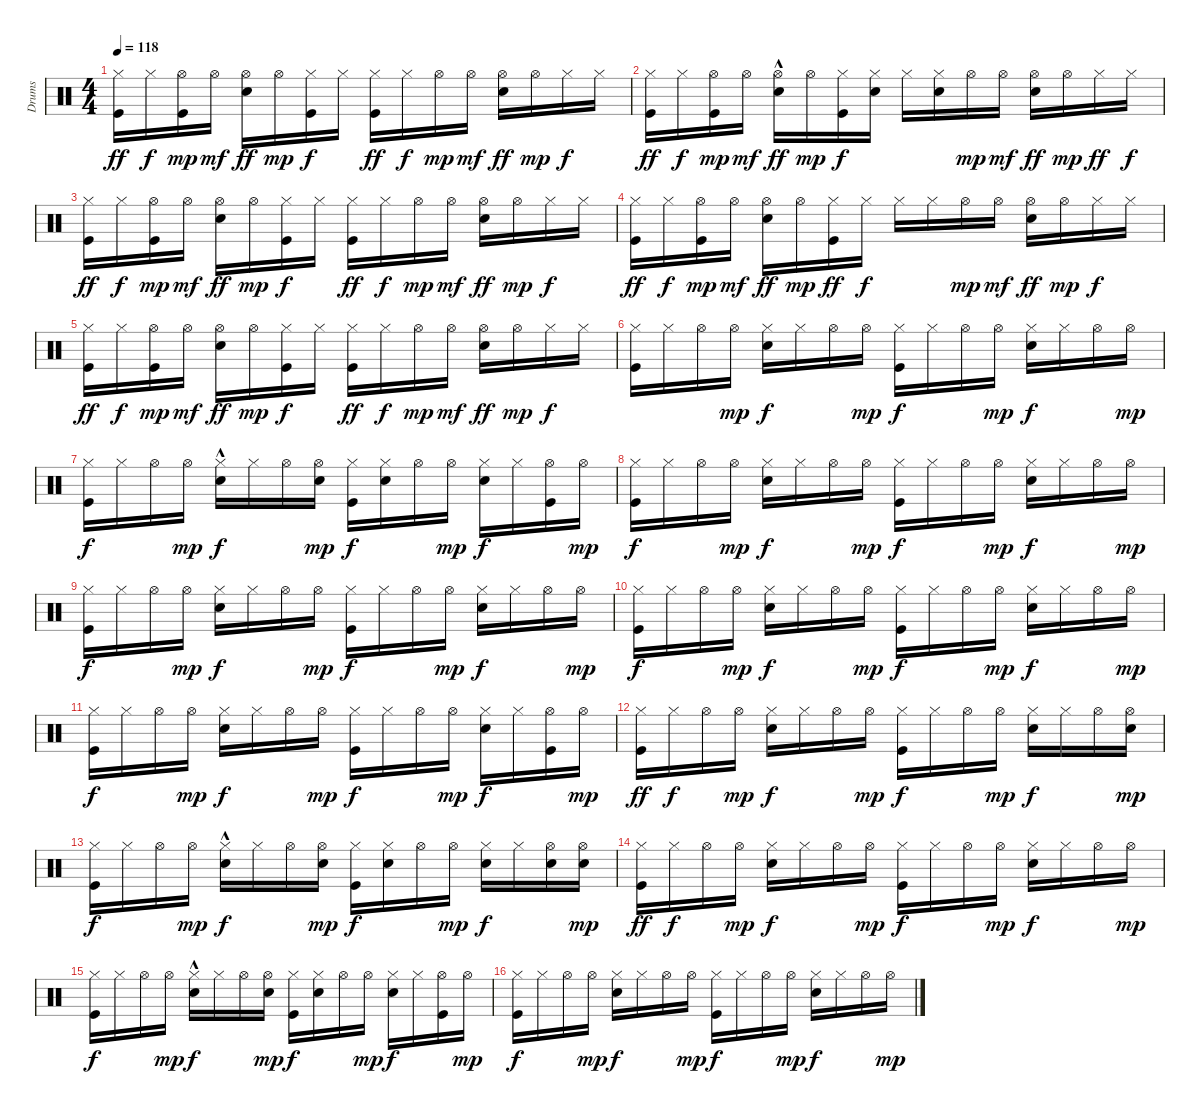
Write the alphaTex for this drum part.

\track ("Drums" "Drums") {instrument percussion}
\staff {score}
\articulation defaults
\ts (4 4)
\tempo 118
\clef neutral
\ks c
("Kick (hit)" "Hi-Hat (closed)").16{dy ff} "Hi-Hat (closed)".16{dy f} ("Kick (hit)" "Hi-Hat (open)").16{dy mp} "Hi-Hat (open)".16{dy mf} ("Electric Snare (hit)" "Hi-Hat (open)").16{dy ff} "Hi-Hat (open)".16{dy mp} ("Kick (hit)" "Hi-Hat (closed)").16{dy f} "Hi-Hat (closed)".16 ("Kick (hit)" "Hi-Hat (closed)").16{dy ff} "Hi-Hat (closed)".16{dy f} "Hi-Hat (open)".16{dy mp} "Hi-Hat (open)".16{dy mf} ("Electric Snare (hit)" "Hi-Hat (open)").16{dy ff} "Hi-Hat (open)".16{dy mp} "Hi-Hat (closed)".16{dy f} "Hi-Hat (closed)".16 |
("Kick (hit)" "Hi-Hat (closed)").16{dy ff} "Hi-Hat (closed)".16{dy f} ("Kick (hit)" "Hi-Hat (open)").16{dy mp} "Hi-Hat (open)".16{dy mf} ("Electric Snare (hit)"{hac} "Hi-Hat (open)").16{dy ff} "Hi-Hat (open)".16{dy mp} ("Kick (hit)" "Hi-Hat (closed)").16{dy f} ("Electric Snare (hit)" "Hi-Hat (closed)").16 "Hi-Hat (closed)".16 ("Electric Snare (hit)" "Hi-Hat (closed)").16 "Hi-Hat (open)".16{dy mp} "Hi-Hat (open)".16{dy mf} ("Hi-Hat (open)" "Electric Snare (hit)").16{dy ff} "Hi-Hat (open)".16{dy mp} "Hi-Hat (closed)".16{dy ff} "Hi-Hat (closed)".16{dy f} |
("Kick (hit)" "Hi-Hat (closed)").16{dy ff} "Hi-Hat (closed)".16{dy f} ("Kick (hit)" "Hi-Hat (open)").16{dy mp} "Hi-Hat (open)".16{dy mf} ("Electric Snare (hit)" "Hi-Hat (open)").16{dy ff} "Hi-Hat (open)".16{dy mp} ("Kick (hit)" "Hi-Hat (closed)").16{dy f} "Hi-Hat (closed)".16 ("Kick (hit)" "Hi-Hat (closed)").16{dy ff} "Hi-Hat (closed)".16{dy f} "Hi-Hat (open)".16{dy mp} "Hi-Hat (open)".16{dy mf} ("Electric Snare (hit)" "Hi-Hat (open)").16{dy ff} "Hi-Hat (open)".16{dy mp} "Hi-Hat (closed)".16{dy f} "Hi-Hat (closed)".16 |
("Kick (hit)" "Hi-Hat (closed)").16{dy ff} "Hi-Hat (closed)".16{dy f} ("Kick (hit)" "Hi-Hat (open)").16{dy mp} "Hi-Hat (open)".16{dy mf} ("Electric Snare (hit)" "Hi-Hat (open)").16{dy ff} "Hi-Hat (open)".16{dy mp} ("Kick (hit)" "Hi-Hat (closed)").16{dy ff} "Hi-Hat (closed)".16{dy f} "Hi-Hat (closed)".16 "Hi-Hat (closed)".16 "Hi-Hat (open)".16{dy mp} "Hi-Hat (open)".16{dy mf} ("Electric Snare (hit)" "Hi-Hat (open)").16{dy ff} "Hi-Hat (open)".16{dy mp} "Hi-Hat (closed)".16{dy f} "Hi-Hat (closed)".16 |
("Kick (hit)" "Hi-Hat (closed)").16{dy ff} "Hi-Hat (closed)".16{dy f} ("Kick (hit)" "Hi-Hat (open)").16{dy mp} "Hi-Hat (open)".16{dy mf} ("Electric Snare (hit)" "Hi-Hat (open)").16{dy ff} "Hi-Hat (open)".16{dy mp} ("Kick (hit)" "Hi-Hat (closed)").16{dy f} "Hi-Hat (closed)".16 ("Kick (hit)" "Hi-Hat (closed)").16{dy ff} "Hi-Hat (closed)".16{dy f} "Hi-Hat (open)".16{dy mp} "Hi-Hat (open)".16{dy mf} ("Electric Snare (hit)" "Hi-Hat (open)").16{dy ff} "Hi-Hat (open)".16{dy mp} "Hi-Hat (closed)".16{dy f} "Hi-Hat (closed)".16 |
("Hi-Hat (closed)" "Kick (hit)").16 "Hi-Hat (closed)".16 "Hi-Hat (open)".16 "Hi-Hat (open)".16{dy mp} ("Hi-Hat (closed)" "Electric Snare (hit)").16{dy f} "Hi-Hat (closed)".16 "Hi-Hat (open)".16 "Hi-Hat (open)".16{dy mp} ("Kick (hit)" "Hi-Hat (closed)").16{dy f} "Hi-Hat (closed)".16 "Hi-Hat (open)".16 "Hi-Hat (open)".16{dy mp} ("Hi-Hat (closed)" "Electric Snare (hit)").16{dy f} "Hi-Hat (closed)".16 "Hi-Hat (open)".16 "Hi-Hat (open)".16{dy mp} |
("Hi-Hat (closed)" "Kick (hit)").16{dy f} "Hi-Hat (closed)".16 "Hi-Hat (open)".16 "Hi-Hat (open)".16{dy mp} ("Hi-Hat (closed)" "Electric Snare (hit)"{hac}).16{dy f} "Hi-Hat (closed)".16 "Hi-Hat (open)".16 ("Electric Snare (hit)" "Hi-Hat (open)").16{dy mp} ("Kick (hit)" "Hi-Hat (closed)").16{dy f} ("Electric Snare (hit)" "Hi-Hat (closed)").16 "Hi-Hat (open)".16 "Hi-Hat (open)".16{dy mp} ("Hi-Hat (closed)" "Electric Snare (hit)").16{dy f} "Hi-Hat (closed)".16 ("Kick (hit)" "Hi-Hat (open)").16 "Hi-Hat (open)".16{dy mp} |
("Hi-Hat (closed)" "Kick (hit)").16{dy f} "Hi-Hat (closed)".16 "Hi-Hat (open)".16 "Hi-Hat (open)".16{dy mp} ("Hi-Hat (closed)" "Electric Snare (hit)").16{dy f} "Hi-Hat (closed)".16 "Hi-Hat (open)".16 "Hi-Hat (open)".16{dy mp} ("Kick (hit)" "Hi-Hat (closed)").16{dy f} "Hi-Hat (closed)".16 "Hi-Hat (open)".16 "Hi-Hat (open)".16{dy mp} ("Hi-Hat (closed)" "Electric Snare (hit)").16{dy f} "Hi-Hat (closed)".16 "Hi-Hat (open)".16 "Hi-Hat (open)".16{dy mp} |
("Hi-Hat (closed)" "Kick (hit)").16{dy f} "Hi-Hat (closed)".16 "Hi-Hat (open)".16 "Hi-Hat (open)".16{dy mp} ("Hi-Hat (closed)" "Electric Snare (hit)").16{dy f} "Hi-Hat (closed)".16 "Hi-Hat (open)".16 "Hi-Hat (open)".16{dy mp} ("Kick (hit)" "Hi-Hat (closed)").16{dy f} "Hi-Hat (closed)".16 "Hi-Hat (open)".16 "Hi-Hat (open)".16{dy mp} ("Hi-Hat (closed)" "Electric Snare (hit)").16{dy f} "Hi-Hat (closed)".16 "Hi-Hat (open)".16 "Hi-Hat (open)".16{dy mp} |
("Hi-Hat (closed)" "Kick (hit)").16{dy f} "Hi-Hat (closed)".16 "Hi-Hat (open)".16 "Hi-Hat (open)".16{dy mp} ("Hi-Hat (closed)" "Electric Snare (hit)").16{dy f} "Hi-Hat (closed)".16 "Hi-Hat (open)".16 "Hi-Hat (open)".16{dy mp} ("Kick (hit)" "Hi-Hat (closed)").16{dy f} "Hi-Hat (closed)".16 "Hi-Hat (open)".16 "Hi-Hat (open)".16{dy mp} ("Hi-Hat (closed)" "Electric Snare (hit)").16{dy f} "Hi-Hat (closed)".16 "Hi-Hat (open)".16 "Hi-Hat (open)".16{dy mp} |
("Hi-Hat (closed)" "Kick (hit)").16{dy f} "Hi-Hat (closed)".16 "Hi-Hat (open)".16 "Hi-Hat (open)".16{dy mp} ("Electric Snare (hit)" "Hi-Hat (closed)").16{dy f} "Hi-Hat (closed)".16 "Hi-Hat (open)".16 "Hi-Hat (open)".16{dy mp} ("Kick (hit)" "Hi-Hat (closed)").16{dy f} "Hi-Hat (closed)".16 "Hi-Hat (open)".16 "Hi-Hat (open)".16{dy mp} ("Hi-Hat (closed)" "Electric Snare (hit)").16{dy f} "Hi-Hat (closed)".16 ("Kick (hit)" "Hi-Hat (open)").16 "Hi-Hat (open)".16{dy mp} |
("Hi-Hat (closed)" "Kick (hit)").16{dy ff} "Hi-Hat (closed)".16{dy f} "Hi-Hat (open)".16 "Hi-Hat (open)".16{dy mp} ("Hi-Hat (closed)" "Electric Snare (hit)").16{dy f} "Hi-Hat (closed)".16 "Hi-Hat (open)".16 "Hi-Hat (open)".16{dy mp} ("Kick (hit)" "Hi-Hat (closed)").16{dy f} "Hi-Hat (closed)".16 "Hi-Hat (open)".16 "Hi-Hat (open)".16{dy mp} ("Hi-Hat (closed)" "Electric Snare (hit)").16{dy f} "Hi-Hat (closed)".16 "Hi-Hat (open)".16 ("Electric Snare (hit)" "Hi-Hat (open)").16{dy mp} |
("Hi-Hat (closed)" "Kick (hit)").16{dy f} "Hi-Hat (closed)".16 "Hi-Hat (open)".16 "Hi-Hat (open)".16{dy mp} ("Hi-Hat (closed)" "Electric Snare (hit)"{hac}).16{dy f} "Hi-Hat (closed)".16 "Hi-Hat (open)".16 ("Electric Snare (hit)" "Hi-Hat (open)").16{dy mp} ("Kick (hit)" "Hi-Hat (closed)").16{dy f} ("Electric Snare (hit)" "Hi-Hat (closed)").16 "Hi-Hat (open)".16 "Hi-Hat (open)".16{dy mp} ("Hi-Hat (closed)" "Electric Snare (hit)").16{dy f} "Hi-Hat (closed)".16 ("Electric Snare (hit)" "Hi-Hat (open)").16 ("Electric Snare (hit)" "Hi-Hat (open)").16{dy mp} |
("Hi-Hat (closed)" "Kick (hit)").16{dy ff} "Hi-Hat (closed)".16{dy f} "Hi-Hat (open)".16 "Hi-Hat (open)".16{dy mp} ("Hi-Hat (closed)" "Electric Snare (hit)").16{dy f} "Hi-Hat (closed)".16 "Hi-Hat (open)".16 "Hi-Hat (open)".16{dy mp} ("Kick (hit)" "Hi-Hat (closed)").16{dy f} "Hi-Hat (closed)".16 "Hi-Hat (open)".16 "Hi-Hat (open)".16{dy mp} ("Hi-Hat (closed)" "Electric Snare (hit)").16{dy f} "Hi-Hat (closed)".16 "Hi-Hat (open)".16 "Hi-Hat (open)".16{dy mp} |
("Hi-Hat (closed)" "Kick (hit)").16{dy f} "Hi-Hat (closed)".16 "Hi-Hat (open)".16 "Hi-Hat (open)".16{dy mp} ("Hi-Hat (closed)" "Electric Snare (hit)"{hac}).16{dy f} "Hi-Hat (closed)".16 "Hi-Hat (open)".16 ("Electric Snare (hit)" "Hi-Hat (open)").16{dy mp} ("Kick (hit)" "Hi-Hat (closed)").16{dy f} ("Electric Snare (hit)" "Hi-Hat (closed)").16 "Hi-Hat (open)".16 "Hi-Hat (open)".16{dy mp} ("Hi-Hat (closed)" "Electric Snare (hit)").16{dy f} "Hi-Hat (closed)".16 ("Kick (hit)" "Hi-Hat (open)").16 "Hi-Hat (open)".16{dy mp} |
("Hi-Hat (closed)" "Kick (hit)").16{dy f} "Hi-Hat (closed)".16 "Hi-Hat (open)".16 "Hi-Hat (open)".16{dy mp} ("Hi-Hat (closed)" "Electric Snare (hit)").16{dy f} "Hi-Hat (closed)".16 "Hi-Hat (open)".16 "Hi-Hat (open)".16{dy mp} ("Kick (hit)" "Hi-Hat (closed)").16{dy f} "Hi-Hat (closed)".16 "Hi-Hat (open)".16 "Hi-Hat (open)".16{dy mp} ("Hi-Hat (closed)" "Electric Snare (hit)").16{dy f} "Hi-Hat (closed)".16 "Hi-Hat (open)".16 "Hi-Hat (open)".16{dy mp}
